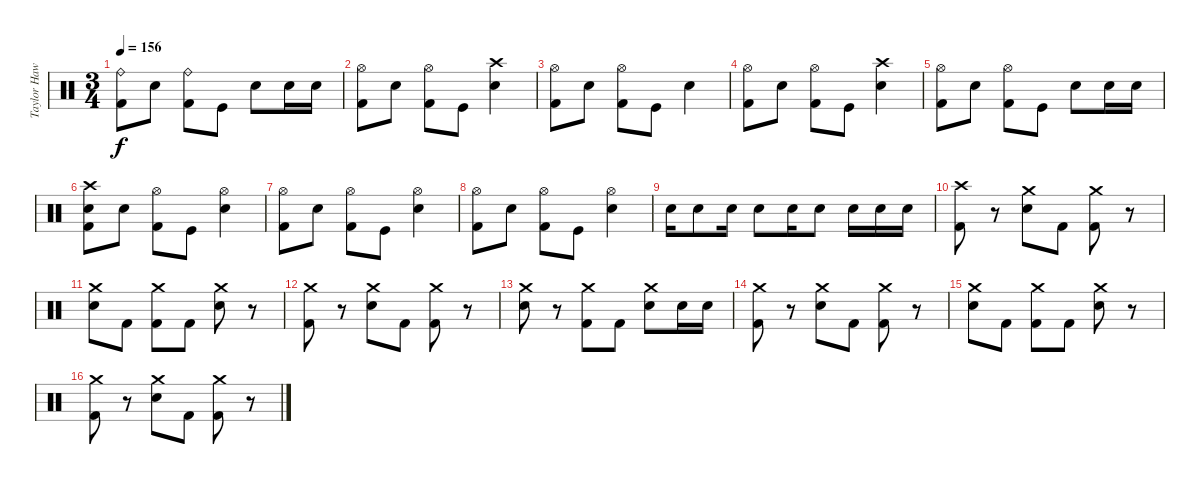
\track ("Taylor Hawkins" "Taylor Haw") {instrument percussion}
\staff {score}
\articulation defaults
\ts (3 4)
\tempo 156
\clef neutral
\ks c
("Ride (bell)" "Kick (hit) 2").8{dy f} "Electric Snare (hit)".8 ("Ride (bell)" "Kick (hit) 2").8 "Kick (hit)".8 "Electric Snare (hit)".8 "Electric Snare (hit)".16 "Electric Snare (hit)".16 |
("Hi-Hat (open)" "Kick (hit) 2").8 "Electric Snare (hit)".8 ("Hi-Hat (open)" "Kick (hit) 2").8 "Kick (hit)".8 ("Crash high (hit)" "Electric Snare (hit)").4 |
("Hi-Hat (open)" "Kick (hit) 2").8 "Electric Snare (hit)".8 ("Hi-Hat (open)" "Kick (hit) 2").8 "Kick (hit)".8 "Electric Snare (hit)".4 |
("Hi-Hat (open)" "Kick (hit) 2").8 "Electric Snare (hit)".8 ("Hi-Hat (open)" "Kick (hit) 2").8 "Kick (hit)".8 ("Crash high (hit)" "Electric Snare (hit)").4 |
("Hi-Hat (open)" "Kick (hit) 2").8 "Electric Snare (hit)".8 ("Hi-Hat (open)" "Kick (hit) 2").8 "Kick (hit)".8 "Electric Snare (hit)".8 "Electric Snare (hit)".16 "Electric Snare (hit)".16 |
("Crash high (hit)" "Electric Snare (hit)" "Kick (hit) 2").8 "Electric Snare (hit)".8 ("Hi-Hat (open)" "Kick (hit) 2").8 "Kick (hit)".8 ("Hi-Hat (open)" "Electric Snare (hit)").4 |
("Hi-Hat (open)" "Kick (hit) 2").8 "Electric Snare (hit)".8 ("Hi-Hat (open)" "Kick (hit) 2").8 "Kick (hit)".8 ("Hi-Hat (open)" "Electric Snare (hit)").4 |
("Hi-Hat (open)" "Kick (hit) 2").8 "Electric Snare (hit)".8 ("Hi-Hat (open)" "Kick (hit) 2").8 "Kick (hit)".8 ("Hi-Hat (open)" "Electric Snare (hit)").4 |
"Electric Snare (hit)".16 "Electric Snare (hit)".8 "Electric Snare (hit)".16 "Electric Snare (hit)".8 "Electric Snare (hit)".16 "Electric Snare (hit)".8 "Electric Snare (hit)".16 "Electric Snare (hit)".16 "Electric Snare (hit)".16 |
("Crash high (hit)" "Kick (hit) 2").8 r.8 ("Crash medium (hit)" "Electric Snare (hit)").8 "Kick (hit) 2".8 ("Crash medium (hit)" "Kick (hit) 2").8 r.8 |
("Crash medium (hit)" "Electric Snare (hit)").8 "Kick (hit) 2".8 ("Crash medium (hit)" "Kick (hit) 2").8 "Kick (hit) 2".8 ("Crash medium (hit)" "Electric Snare (hit)").8 r.8 |
("Crash medium (hit)" "Kick (hit) 2").8 r.8 ("Crash medium (hit)" "Electric Snare (hit)").8 "Kick (hit) 2".8 ("Crash medium (hit)" "Kick (hit) 2").8 r.8 |
("Crash medium (hit)" "Electric Snare (hit)").8 r.8 ("Crash medium (hit)" "Kick (hit) 2").8 "Kick (hit) 2".8 ("Crash medium (hit)" "Electric Snare (hit)").8 "Electric Snare (hit)".16 "Electric Snare (hit)".16 |
("Crash medium (hit)" "Kick (hit) 2").8 r.8 ("Crash medium (hit)" "Electric Snare (hit)").8 "Kick (hit) 2".8 ("Crash medium (hit)" "Kick (hit) 2").8 r.8 |
("Crash medium (hit)" "Electric Snare (hit)").8 "Kick (hit) 2".8 ("Crash medium (hit)" "Kick (hit) 2").8 "Kick (hit) 2".8 ("Crash medium (hit)" "Electric Snare (hit)").8 r.8 |
("Crash medium (hit)" "Kick (hit) 2").8 r.8 ("Crash medium (hit)" "Electric Snare (hit)").8 "Kick (hit) 2".8 ("Crash medium (hit)" "Kick (hit) 2").8 r.8
